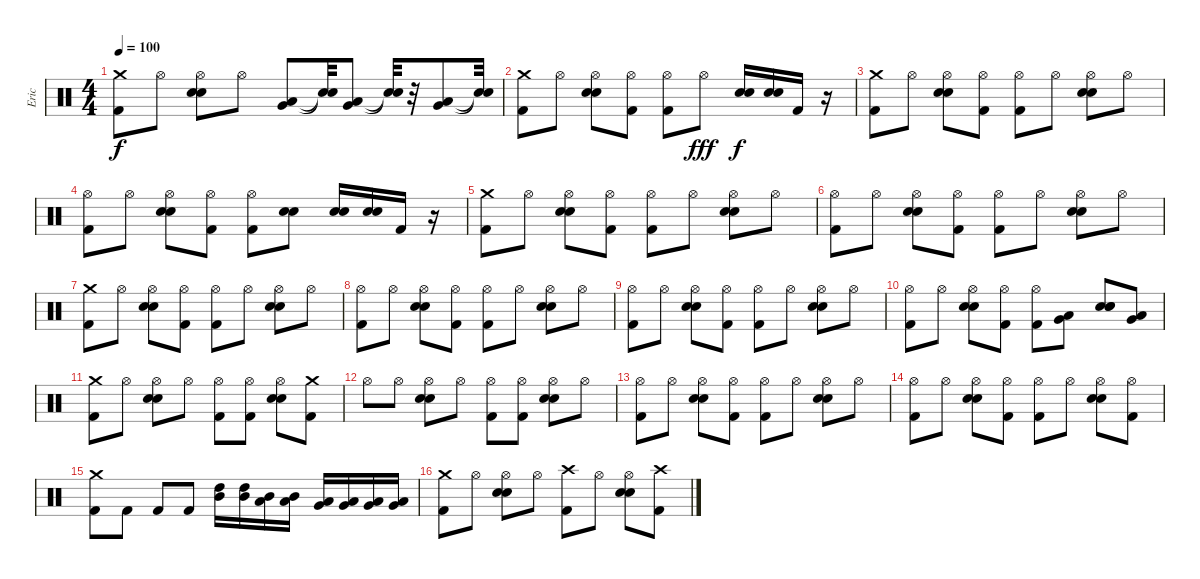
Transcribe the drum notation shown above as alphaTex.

\track ("Eric" "Eric") {instrument percussion}
\staff {score}
\articulation defaults
\ts (4 4)
\tempo 100
\clef neutral
\ks c
("Crash medium (hit)" "Kick (hit) 2").8{dy f} "Hi-Hat (open)".8 ("Hi-Hat (open)" "Electric Snare (hit)" "Snare (hit) 2").8 "Hi-Hat (open)".8 ("Very Low Tom (hit)" "Low Floor Tom (hit)").8 ("Snare (hit)"{t} "Snare (hit)"{t}).32 ("Very Low Tom (hit)" "Low Floor Tom (hit)").8 ("Snare (hit)"{t} "Snare (hit)"{t}).32 r.32 ("Very Low Tom (hit)" "Low Floor Tom (hit)").8 ("Snare (hit)"{t} "Snare (hit)"{t}).32 |
("Crash medium (hit)" "Kick (hit) 2").8 "Hi-Hat (open)".8 ("Hi-Hat (open)" "Electric Snare (hit)" "Snare (hit) 2").8 ("Hi-Hat (open)" "Kick (hit) 2").8 ("Hi-Hat (open)" "Kick (hit) 2").8 "Hi-Hat (open)".8{dy fff} ("Electric Snare (hit)" "Snare (hit) 2").16{dy f} ("Electric Snare (hit)" "Snare (hit) 2").16 "Kick (hit) 2".16 r.16 |
("Crash medium (hit)" "Kick (hit) 2").8 "Hi-Hat (open)".8 ("Hi-Hat (open)" "Electric Snare (hit)" "Snare (hit) 2").8 ("Hi-Hat (open)" "Kick (hit) 2").8 ("Hi-Hat (open)" "Kick (hit) 2").8 "Hi-Hat (open)".8 ("Hi-Hat (open)" "Electric Snare (hit)" "Snare (hit) 2").8 "Hi-Hat (open)".8 |
("Hi-Hat (open)" "Kick (hit) 2").8 "Hi-Hat (open)".8 ("Hi-Hat (open)" "Electric Snare (hit)" "Snare (hit) 2").8 ("Hi-Hat (open)" "Kick (hit) 2").8 ("Hi-Hat (open)" "Kick (hit) 2").8 ("Snare (hit) 2" "Electric Snare (hit)").8 ("Electric Snare (hit)" "Snare (hit) 2").16 ("Electric Snare (hit)" "Snare (hit) 2").16 "Kick (hit) 2".16 r.16 |
("Crash medium (hit)" "Kick (hit) 2").8 "Hi-Hat (open)".8 ("Hi-Hat (open)" "Electric Snare (hit)" "Snare (hit) 2").8 ("Hi-Hat (open)" "Kick (hit) 2").8 ("Hi-Hat (open)" "Kick (hit) 2").8 "Hi-Hat (open)".8 ("Hi-Hat (open)" "Electric Snare (hit)" "Snare (hit) 2").8 "Hi-Hat (open)".8 |
("Hi-Hat (open)" "Kick (hit) 2").8 "Hi-Hat (open)".8 ("Hi-Hat (open)" "Electric Snare (hit)" "Snare (hit) 2").8 ("Hi-Hat (open)" "Kick (hit) 2").8 ("Hi-Hat (open)" "Kick (hit) 2").8 "Hi-Hat (open)".8 ("Hi-Hat (open)" "Electric Snare (hit)" "Snare (hit) 2").8 "Hi-Hat (open)".8 |
("Crash medium (hit)" "Kick (hit) 2").8 "Hi-Hat (open)".8 ("Hi-Hat (open)" "Electric Snare (hit)" "Snare (hit) 2").8 ("Hi-Hat (open)" "Kick (hit) 2").8 ("Hi-Hat (open)" "Kick (hit) 2").8 "Hi-Hat (open)".8 ("Hi-Hat (open)" "Electric Snare (hit)" "Snare (hit) 2").8 "Hi-Hat (open)".8 |
("Hi-Hat (open)" "Kick (hit) 2").8 "Hi-Hat (open)".8 ("Hi-Hat (open)" "Electric Snare (hit)" "Snare (hit) 2").8 ("Hi-Hat (open)" "Kick (hit) 2").8 ("Hi-Hat (open)" "Kick (hit) 2").8 "Hi-Hat (open)".8 ("Hi-Hat (open)" "Electric Snare (hit)" "Snare (hit) 2").8 "Hi-Hat (open)".8 |
("Hi-Hat (open)" "Kick (hit) 2").8 "Hi-Hat (open)".8 ("Hi-Hat (open)" "Electric Snare (hit)" "Snare (hit) 2").8 ("Hi-Hat (open)" "Kick (hit) 2").8 ("Hi-Hat (open)" "Kick (hit) 2").8 "Hi-Hat (open)".8 ("Hi-Hat (open)" "Electric Snare (hit)" "Snare (hit) 2").8 "Hi-Hat (open)".8 |
("Hi-Hat (open)" "Kick (hit) 2").8 "Hi-Hat (open)".8 ("Hi-Hat (open)" "Electric Snare (hit)" "Snare (hit) 2").8 ("Hi-Hat (open)" "Kick (hit) 2").8 ("Hi-Hat (open)" "Kick (hit) 2").8 ("Very Low Tom (hit)" "Low Tom (hit)").8 ("Snare (hit) 2" "Electric Snare (hit)" "Snare (hit) 2").8 ("Very Low Tom (hit)" "Low Floor Tom (hit)").8 |
("Crash medium (hit)" "Kick (hit) 2").8 "Hi-Hat (open)".8 ("Hi-Hat (open)" "Electric Snare (hit)" "Snare (hit) 2").8 "Hi-Hat (open)".8 ("Hi-Hat (open)" "Kick (hit) 2").8 ("Kick (hit) 2" "Hi-Hat (open)").8 ("Hi-Hat (open)" "Electric Snare (hit)" "Snare (hit) 2").8 ("Kick (hit) 2" "Crash medium (hit)").8 |
"Hi-Hat (open)".8 "Hi-Hat (open)".8 ("Hi-Hat (open)" "Electric Snare (hit)" "Snare (hit) 2").8 "Hi-Hat (open)".8 ("Hi-Hat (open)" "Kick (hit) 2").8 ("Kick (hit) 2" "Hi-Hat (open)").8 ("Hi-Hat (open)" "Electric Snare (hit)" "Snare (hit) 2").8 "Hi-Hat (open)".8 |
("Hi-Hat (open)" "Kick (hit) 2").8 "Hi-Hat (open)".8 ("Hi-Hat (open)" "Electric Snare (hit)" "Snare (hit) 2").8 ("Hi-Hat (open)" "Kick (hit) 2").8 ("Hi-Hat (open)" "Kick (hit) 2").8 "Hi-Hat (open)".8 ("Hi-Hat (open)" "Electric Snare (hit)" "Snare (hit) 2").8 "Hi-Hat (open)".8 |
("Hi-Hat (open)" "Kick (hit) 2").8 "Hi-Hat (open)".8 ("Hi-Hat (open)" "Electric Snare (hit)" "Snare (hit) 2").8 ("Hi-Hat (open)" "Kick (hit) 2").8 ("Hi-Hat (open)" "Kick (hit) 2").8 "Hi-Hat (open)".8 ("Hi-Hat (open)" "Electric Snare (hit)" "Snare (hit) 2").8 ("Kick (hit) 2" "Hi-Hat (open)").8 |
("Crash medium (hit)" "Kick (hit) 2").8 "Kick (hit) 2".8 "Kick (hit) 2".8 "Kick (hit) 2".8 ("Mid Tom (hit)" "High Tom (hit)").16 ("Mid Tom (hit)" "High Tom (hit)").16 ("Low Tom (hit)" "Mid Tom (hit)").16 ("Low Tom (hit)" "Mid Tom (hit)").16 ("Low Tom (hit)" "Very Low Tom (hit)").16 ("Low Tom (hit)" "Very Low Tom (hit)").16 ("Very Low Tom (hit)" "Low Floor Tom (hit)").16 ("Very Low Tom (hit)" "Low Floor Tom (hit)").16 |
("Crash medium (hit)" "Kick (hit) 2").8 "Hi-Hat (open)".8 ("Hi-Hat (open)" "Electric Snare (hit)" "Snare (hit) 2").8 "Hi-Hat (open)".8 ("Crash high (hit)" "Kick (hit) 2").8 "Hi-Hat (open)".8 ("Hi-Hat (open)" "Electric Snare (hit)" "Snare (hit) 2").8 ("Kick (hit) 2" "Crash high (hit)").8
